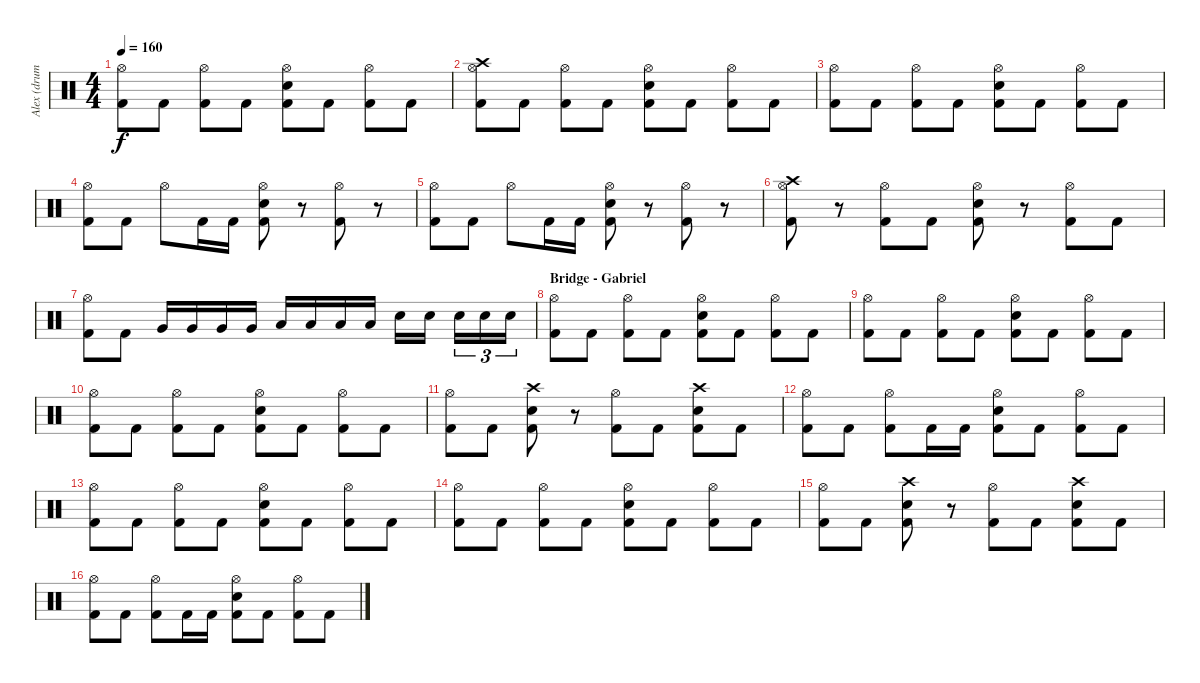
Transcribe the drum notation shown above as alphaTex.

\track ("Alex (drums)" "Alex (drum") {instrument percussion}
\staff {score}
\articulation defaults
\ts (4 4)
\tempo 160
\clef neutral
\ks c
("Hi-Hat (open)" "Kick (hit) 2").8{dy f} "Kick (hit) 2".8 ("Hi-Hat (open)" "Kick (hit) 2").8 "Kick (hit) 2".8 ("Hi-Hat (open)" "Snare (hit) 2" "Kick (hit) 2").8 "Kick (hit) 2".8 ("Hi-Hat (open)" "Kick (hit) 2").8 "Kick (hit) 2".8 |
("Hi-Hat (open)" "Kick (hit) 2" "Crash high (hit)").8 "Kick (hit) 2".8 ("Hi-Hat (open)" "Kick (hit) 2").8 "Kick (hit) 2".8 ("Hi-Hat (open)" "Snare (hit) 2" "Kick (hit) 2").8 "Kick (hit) 2".8 ("Hi-Hat (open)" "Kick (hit) 2").8 "Kick (hit) 2".8 |
("Hi-Hat (open)" "Kick (hit) 2").8 "Kick (hit) 2".8 ("Hi-Hat (open)" "Kick (hit) 2").8 "Kick (hit) 2".8 ("Hi-Hat (open)" "Snare (hit) 2" "Kick (hit) 2").8 "Kick (hit) 2".8 ("Hi-Hat (open)" "Kick (hit) 2").8 "Kick (hit) 2".8 |
("Hi-Hat (open)" "Kick (hit) 2").8 "Kick (hit) 2".8 "Hi-Hat (open)".8 "Kick (hit) 2".16 "Kick (hit) 2".16 ("Hi-Hat (open)" "Snare (hit) 2" "Kick (hit) 2").8 r.8 ("Hi-Hat (open)" "Kick (hit) 2").8 r.8 |
("Hi-Hat (open)" "Kick (hit) 2").8 "Kick (hit) 2".8 "Hi-Hat (open)".8 "Kick (hit) 2".16 "Kick (hit) 2".16 ("Hi-Hat (open)" "Snare (hit) 2" "Kick (hit) 2").8 r.8 ("Hi-Hat (open)" "Kick (hit) 2").8 r.8 |
("Hi-Hat (open)" "Kick (hit) 2" "Crash high (hit)").8 r.8 ("Hi-Hat (open)" "Kick (hit) 2").8 "Kick (hit) 2".8 ("Hi-Hat (open)" "Snare (hit) 2" "Kick (hit) 2").8 r.8 ("Hi-Hat (open)" "Kick (hit) 2").8 "Kick (hit) 2".8 |
("Hi-Hat (open)" "Kick (hit) 2").8 "Kick (hit) 2".8 "Very Low Tom (hit)".16 "Very Low Tom (hit)".16 "Very Low Tom (hit)".16 "Very Low Tom (hit)".16 "Low Tom (hit)".16 "Low Tom (hit)".16 "Low Tom (hit)".16 "Low Tom (hit)".16 "Snare (hit) 2".16 "Snare (hit) 2".16 "Snare (hit) 2".16{tu (3 2)} "Snare (hit) 2".16{tu (3 2)} "Snare (hit) 2".16{tu (3 2)} |
\section ("" "Bridge - Gabriel")
("Hi-Hat (open)" "Kick (hit) 2").8 "Kick (hit) 2".8 ("Hi-Hat (open)" "Kick (hit) 2").8 "Kick (hit) 2".8 ("Hi-Hat (open)" "Snare (hit) 2" "Kick (hit) 2").8 "Kick (hit) 2".8 ("Hi-Hat (open)" "Kick (hit) 2").8 "Kick (hit) 2".8 |
("Hi-Hat (open)" "Kick (hit) 2").8 "Kick (hit) 2".8 ("Hi-Hat (open)" "Kick (hit) 2").8 "Kick (hit) 2".8 ("Hi-Hat (open)" "Snare (hit) 2" "Kick (hit) 2").8 "Kick (hit) 2".8 ("Hi-Hat (open)" "Kick (hit) 2").8 "Kick (hit) 2".8 |
("Hi-Hat (open)" "Kick (hit) 2").8 "Kick (hit) 2".8 ("Hi-Hat (open)" "Kick (hit) 2").8 "Kick (hit) 2".8 ("Hi-Hat (open)" "Snare (hit) 2" "Kick (hit) 2").8 "Kick (hit) 2".8 ("Hi-Hat (open)" "Kick (hit) 2").8 "Kick (hit) 2".8 |
("Hi-Hat (open)" "Kick (hit) 2").8 "Kick (hit) 2".8 ("Snare (hit) 2" "Kick (hit) 2" "Crash high (hit)").8 r.8 ("Hi-Hat (open)" "Kick (hit) 2").8 "Kick (hit) 2".8 ("Snare (hit) 2" "Kick (hit) 2" "Crash high (hit)").8 "Kick (hit) 2".8 |
("Hi-Hat (open)" "Kick (hit) 2").8 "Kick (hit) 2".8 ("Hi-Hat (open)" "Kick (hit) 2").8 "Kick (hit) 2".16 "Kick (hit) 2".16 ("Hi-Hat (open)" "Snare (hit) 2" "Kick (hit) 2").8 "Kick (hit) 2".8 ("Hi-Hat (open)" "Kick (hit) 2").8 "Kick (hit) 2".8 |
("Hi-Hat (open)" "Kick (hit) 2").8 "Kick (hit) 2".8 ("Hi-Hat (open)" "Kick (hit) 2").8 "Kick (hit) 2".8 ("Hi-Hat (open)" "Snare (hit) 2" "Kick (hit) 2").8 "Kick (hit) 2".8 ("Hi-Hat (open)" "Kick (hit) 2").8 "Kick (hit) 2".8 |
("Hi-Hat (open)" "Kick (hit) 2").8 "Kick (hit) 2".8 ("Hi-Hat (open)" "Kick (hit) 2").8 "Kick (hit) 2".8 ("Hi-Hat (open)" "Snare (hit) 2" "Kick (hit) 2").8 "Kick (hit) 2".8 ("Hi-Hat (open)" "Kick (hit) 2").8 "Kick (hit) 2".8 |
("Hi-Hat (open)" "Kick (hit) 2").8 "Kick (hit) 2".8 ("Snare (hit) 2" "Kick (hit) 2" "Crash high (hit)").8 r.8 ("Hi-Hat (open)" "Kick (hit) 2").8 "Kick (hit) 2".8 ("Snare (hit) 2" "Kick (hit) 2" "Crash high (hit)").8 "Kick (hit) 2".8 |
("Hi-Hat (open)" "Kick (hit) 2").8 "Kick (hit) 2".8 ("Hi-Hat (open)" "Kick (hit) 2").8 "Kick (hit) 2".16 "Kick (hit) 2".16 ("Hi-Hat (open)" "Snare (hit) 2" "Kick (hit) 2").8 "Kick (hit) 2".8 ("Hi-Hat (open)" "Kick (hit) 2").8 "Kick (hit) 2".8
